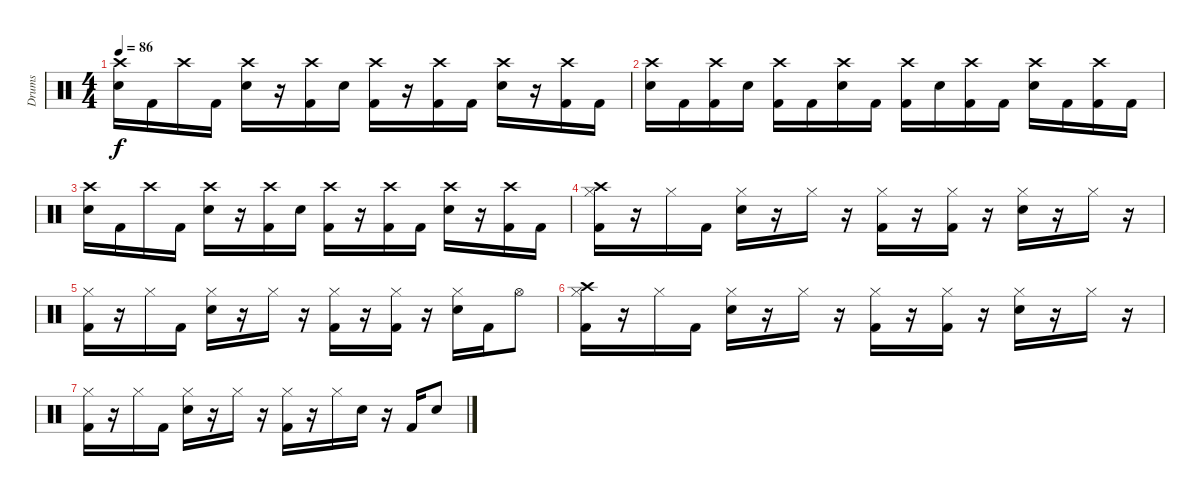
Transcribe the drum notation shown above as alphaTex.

\track ("Drums" "Drums") {instrument percussion}
\staff {score}
\articulation defaults
\ts (4 4)
\tempo 86
\clef neutral
\ks c
("Crash high (hit)" "Electric Snare (hit)").16{dy f} "Kick (hit) 2".16 "Crash high (hit)".16 "Kick (hit) 2".16 ("Crash high (hit)" "Electric Snare (hit)").16 r.16 ("Crash high (hit)" "Kick (hit) 2").16 "Electric Snare (hit)".16 ("Crash high (hit)" "Kick (hit) 2").16 r.16 ("Crash high (hit)" "Kick (hit) 2").16 "Kick (hit) 2".16 ("Crash high (hit)" "Electric Snare (hit)").16 r.16 ("Crash high (hit)" "Kick (hit) 2").16 "Kick (hit) 2".16 |
("Crash high (hit)" "Electric Snare (hit)").16 "Kick (hit) 2".16 ("Crash high (hit)" "Kick (hit) 2").16 "Electric Snare (hit)".16 ("Crash high (hit)" "Kick (hit) 2").16 "Kick (hit) 2".16 ("Crash high (hit)" "Electric Snare (hit)").16 "Kick (hit) 2".16 ("Crash high (hit)" "Kick (hit) 2").16 "Electric Snare (hit)".16 ("Crash high (hit)" "Kick (hit) 2").16 "Kick (hit) 2".16 ("Crash high (hit)" "Electric Snare (hit)").16 "Kick (hit) 2".16 ("Crash high (hit)" "Kick (hit) 2").16 "Kick (hit) 2".16 |
("Crash high (hit)" "Electric Snare (hit)").16 "Kick (hit) 2".16 "Crash high (hit)".16 "Kick (hit) 2".16 ("Crash high (hit)" "Electric Snare (hit)").16 r.16 ("Crash high (hit)" "Kick (hit) 2").16 "Electric Snare (hit)".16 ("Crash high (hit)" "Kick (hit) 2").16 r.16 ("Crash high (hit)" "Kick (hit) 2").16 "Kick (hit) 2".16 ("Crash high (hit)" "Electric Snare (hit)").16 r.16 ("Crash high (hit)" "Kick (hit) 2").16 "Kick (hit) 2".16 |
("Hi-Hat (closed)" "Kick (hit) 2" "Crash high (hit)").16 r.16 "Hi-Hat (closed)".16 "Kick (hit) 2".16 ("Hi-Hat (closed)" "Snare (hit) 2").16 r.16 "Hi-Hat (closed)".16 r.16 ("Hi-Hat (closed)" "Kick (hit) 2").16 r.16 ("Hi-Hat (closed)" "Kick (hit) 2").16 r.16 ("Hi-Hat (closed)" "Snare (hit) 2").16 r.16 "Hi-Hat (closed)".16 r.16 |
("Hi-Hat (closed)" "Kick (hit) 2").16 r.16 "Hi-Hat (closed)".16 "Kick (hit) 2".16 ("Hi-Hat (closed)" "Snare (hit) 2").16 r.16 "Hi-Hat (closed)".16 r.16 ("Hi-Hat (closed)" "Kick (hit) 2").16 r.16 ("Hi-Hat (closed)" "Kick (hit) 2").16 r.16 ("Hi-Hat (closed)" "Snare (hit) 2").16 "Kick (hit) 2".16 "Hi-Hat (open)".8 |
("Hi-Hat (closed)" "Kick (hit) 2" "Crash high (hit)").16 r.16 "Hi-Hat (closed)".16 "Kick (hit) 2".16 ("Hi-Hat (closed)" "Snare (hit) 2").16 r.16 "Hi-Hat (closed)".16 r.16 ("Hi-Hat (closed)" "Kick (hit) 2").16 r.16 ("Hi-Hat (closed)" "Kick (hit) 2").16 r.16 ("Hi-Hat (closed)" "Snare (hit) 2").16 r.16 "Hi-Hat (closed)".16 r.16 |
("Hi-Hat (closed)" "Kick (hit) 2").16 r.16 "Hi-Hat (closed)".16 "Kick (hit) 2".16 ("Hi-Hat (closed)" "Snare (hit) 2").16 r.16 "Hi-Hat (closed)".16 r.16 ("Hi-Hat (closed)" "Kick (hit) 2").16 r.16 "Hi-Hat (closed)".16 "Snare (hit) 2".16 r.16 "Kick (hit) 2".16 "Snare (hit) 2".8
